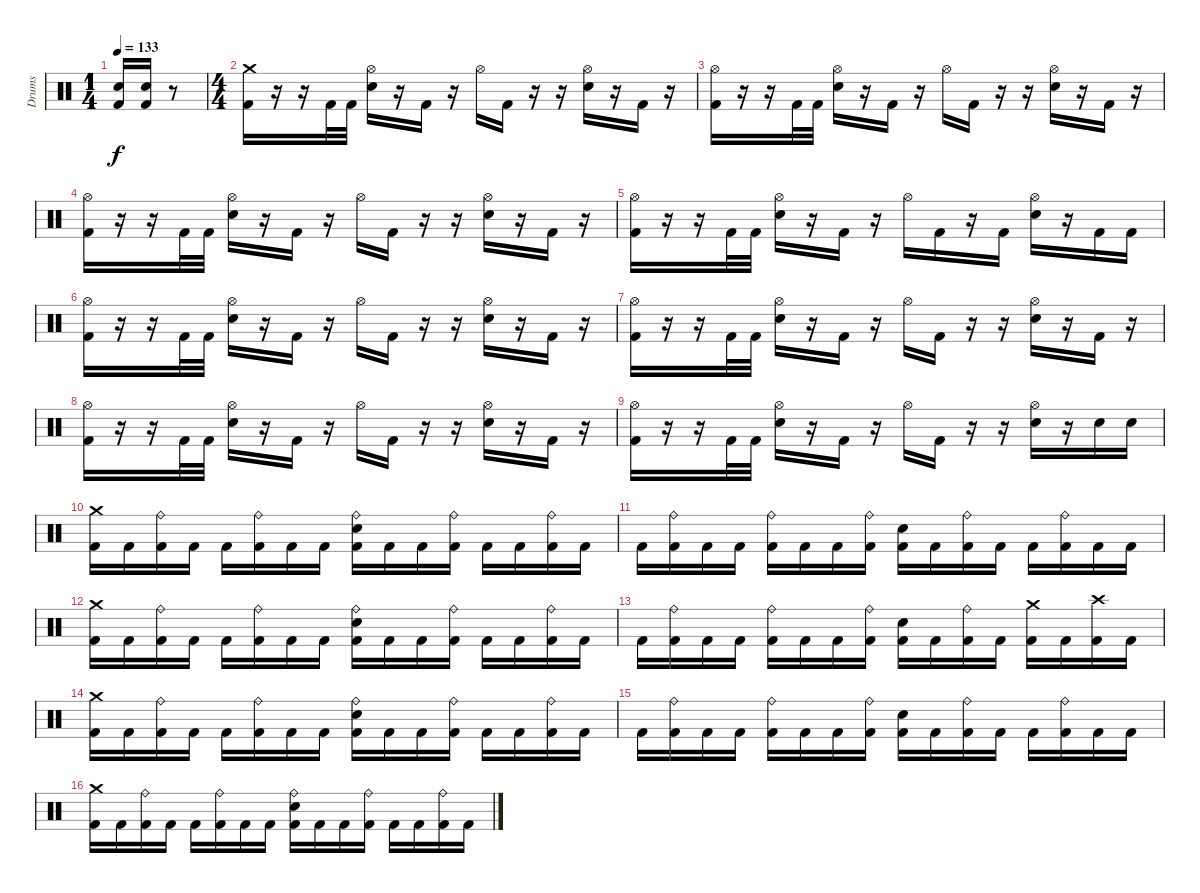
\track ("Drums" "Drums") {instrument percussion}
\staff {score}
\articulation defaults
\ts (1 4)
\tempo 133
\clef neutral
\ks c
("Electric Snare (hit)" "Kick (hit) 2").16{dy f} ("Electric Snare (hit)" "Kick (hit) 2").16 r.8 |
\ts (4 4)
("Crash medium (hit)" "Kick (hit) 2").16 r.16 r.16 "Kick (hit) 2".32 "Kick (hit) 2".32 ("Hi-Hat (open)" "Electric Snare (hit)").16 r.16 "Kick (hit) 2".16 r.16 "Hi-Hat (open)".16 "Kick (hit) 2".16 r.16 r.16 ("Hi-Hat (open)" "Electric Snare (hit)").16 r.16 "Kick (hit) 2".16 r.16 |
("Hi-Hat (open)" "Kick (hit) 2").16 r.16 r.16 "Kick (hit) 2".32 "Kick (hit) 2".32 ("Hi-Hat (open)" "Electric Snare (hit)").16 r.16 "Kick (hit) 2".16 r.16 "Hi-Hat (open)".16 "Kick (hit) 2".16 r.16 r.16 ("Hi-Hat (open)" "Electric Snare (hit)").16 r.16 "Kick (hit) 2".16 r.16 |
("Hi-Hat (open)" "Kick (hit) 2").16 r.16 r.16 "Kick (hit) 2".32 "Kick (hit) 2".32 ("Hi-Hat (open)" "Electric Snare (hit)").16 r.16 "Kick (hit) 2".16 r.16 "Hi-Hat (open)".16 "Kick (hit) 2".16 r.16 r.16 ("Hi-Hat (open)" "Electric Snare (hit)").16 r.16 "Kick (hit) 2".16 r.16 |
("Hi-Hat (open)" "Kick (hit) 2").16 r.16 r.16 "Kick (hit) 2".32 "Kick (hit) 2".32 ("Hi-Hat (open)" "Electric Snare (hit)").16 r.16 "Kick (hit) 2".16 r.16 "Hi-Hat (open)".16 "Kick (hit) 2".16 r.16 "Kick (hit) 2".16 ("Hi-Hat (open)" "Electric Snare (hit)").16 r.16 "Kick (hit) 2".16 "Kick (hit) 2".16 |
("Hi-Hat (open)" "Kick (hit) 2").16 r.16 r.16 "Kick (hit) 2".32 "Kick (hit) 2".32 ("Hi-Hat (open)" "Electric Snare (hit)").16 r.16 "Kick (hit) 2".16 r.16 "Hi-Hat (open)".16 "Kick (hit) 2".16 r.16 r.16 ("Hi-Hat (open)" "Electric Snare (hit)").16 r.16 "Kick (hit) 2".16 r.16 |
("Hi-Hat (open)" "Kick (hit) 2").16 r.16 r.16 "Kick (hit) 2".32 "Kick (hit) 2".32 ("Hi-Hat (open)" "Electric Snare (hit)").16 r.16 "Kick (hit) 2".16 r.16 "Hi-Hat (open)".16 "Kick (hit) 2".16 r.16 r.16 ("Hi-Hat (open)" "Electric Snare (hit)").16 r.16 "Kick (hit) 2".16 r.16 |
("Hi-Hat (open)" "Kick (hit) 2").16 r.16 r.16 "Kick (hit) 2".32 "Kick (hit) 2".32 ("Hi-Hat (open)" "Electric Snare (hit)").16 r.16 "Kick (hit) 2".16 r.16 "Hi-Hat (open)".16 "Kick (hit) 2".16 r.16 r.16 ("Hi-Hat (open)" "Electric Snare (hit)").16 r.16 "Kick (hit) 2".16 r.16 |
("Hi-Hat (open)" "Kick (hit) 2").16 r.16 r.16 "Kick (hit) 2".32 "Kick (hit) 2".32 ("Hi-Hat (open)" "Electric Snare (hit)").16 r.16 "Kick (hit) 2".16 r.16 "Hi-Hat (open)".16 "Kick (hit) 2".16 r.16 r.16 ("Hi-Hat (open)" "Electric Snare (hit)").16 r.16 "Electric Snare (hit)".16 "Electric Snare (hit)".16 |
\section ("" "")
("Crash medium (hit)" "Kick (hit) 2").16 "Kick (hit) 2".16 ("Ride (bell)" "Kick (hit) 2").16 "Kick (hit) 2".16 "Kick (hit) 2".16 ("Ride (bell)" "Kick (hit) 2").16 "Kick (hit) 2".16 "Kick (hit) 2".16 ("Ride (bell)" "Electric Snare (hit)" "Kick (hit) 2").16 "Kick (hit) 2".16 "Kick (hit) 2".16 ("Ride (bell)" "Kick (hit) 2").16 "Kick (hit) 2".16 "Kick (hit) 2".16 ("Ride (bell)" "Kick (hit) 2").16 "Kick (hit) 2".16 |
"Kick (hit) 2".16 ("Ride (bell)" "Kick (hit) 2").16 "Kick (hit) 2".16 "Kick (hit) 2".16 ("Ride (bell)" "Kick (hit) 2").16 "Kick (hit) 2".16 "Kick (hit) 2".16 ("Ride (bell)" "Kick (hit) 2").16 ("Electric Snare (hit)" "Kick (hit) 2").16 "Kick (hit) 2".16 ("Ride (bell)" "Kick (hit) 2").16 "Kick (hit) 2".16 "Kick (hit) 2".16 ("Ride (bell)" "Kick (hit) 2").16 "Kick (hit) 2".16 "Kick (hit) 2".16 |
("Crash medium (hit)" "Kick (hit) 2").16 "Kick (hit) 2".16 ("Ride (bell)" "Kick (hit) 2").16 "Kick (hit) 2".16 "Kick (hit) 2".16 ("Ride (bell)" "Kick (hit) 2").16 "Kick (hit) 2".16 "Kick (hit) 2".16 ("Ride (bell)" "Electric Snare (hit)" "Kick (hit) 2").16 "Kick (hit) 2".16 "Kick (hit) 2".16 ("Ride (bell)" "Kick (hit) 2").16 "Kick (hit) 2".16 "Kick (hit) 2".16 ("Ride (bell)" "Kick (hit) 2").16 "Kick (hit) 2".16 |
"Kick (hit) 2".16 ("Ride (bell)" "Kick (hit) 2").16 "Kick (hit) 2".16 "Kick (hit) 2".16 ("Ride (bell)" "Kick (hit) 2").16 "Kick (hit) 2".16 "Kick (hit) 2".16 ("Ride (bell)" "Kick (hit) 2").16 ("Electric Snare (hit)" "Kick (hit) 2").16 "Kick (hit) 2".16 ("Ride (bell)" "Kick (hit) 2").16 "Kick (hit) 2".16 ("Crash medium (hit)" "Kick (hit) 2").16 "Kick (hit) 2".16 ("Crash high (hit)" "Kick (hit) 2").16 "Kick (hit) 2".16 |
("Crash medium (hit)" "Kick (hit) 2").16 "Kick (hit) 2".16 ("Ride (bell)" "Kick (hit) 2").16 "Kick (hit) 2".16 "Kick (hit) 2".16 ("Ride (bell)" "Kick (hit) 2").16 "Kick (hit) 2".16 "Kick (hit) 2".16 ("Ride (bell)" "Electric Snare (hit)" "Kick (hit) 2").16 "Kick (hit) 2".16 "Kick (hit) 2".16 ("Ride (bell)" "Kick (hit) 2").16 "Kick (hit) 2".16 "Kick (hit) 2".16 ("Ride (bell)" "Kick (hit) 2").16 "Kick (hit) 2".16 |
"Kick (hit) 2".16 ("Ride (bell)" "Kick (hit) 2").16 "Kick (hit) 2".16 "Kick (hit) 2".16 ("Ride (bell)" "Kick (hit) 2").16 "Kick (hit) 2".16 "Kick (hit) 2".16 ("Ride (bell)" "Kick (hit) 2").16 ("Electric Snare (hit)" "Kick (hit) 2").16 "Kick (hit) 2".16 ("Ride (bell)" "Kick (hit) 2").16 "Kick (hit) 2".16 "Kick (hit) 2".16 ("Ride (bell)" "Kick (hit) 2").16 "Kick (hit) 2".16 "Kick (hit) 2".16 |
("Crash medium (hit)" "Kick (hit) 2").16 "Kick (hit) 2".16 ("Ride (bell)" "Kick (hit) 2").16 "Kick (hit) 2".16 "Kick (hit) 2".16 ("Ride (bell)" "Kick (hit) 2").16 "Kick (hit) 2".16 "Kick (hit) 2".16 ("Ride (bell)" "Electric Snare (hit)" "Kick (hit) 2").16 "Kick (hit) 2".16 "Kick (hit) 2".16 ("Ride (bell)" "Kick (hit) 2").16 "Kick (hit) 2".16 "Kick (hit) 2".16 ("Ride (bell)" "Kick (hit) 2").16 "Kick (hit) 2".16
